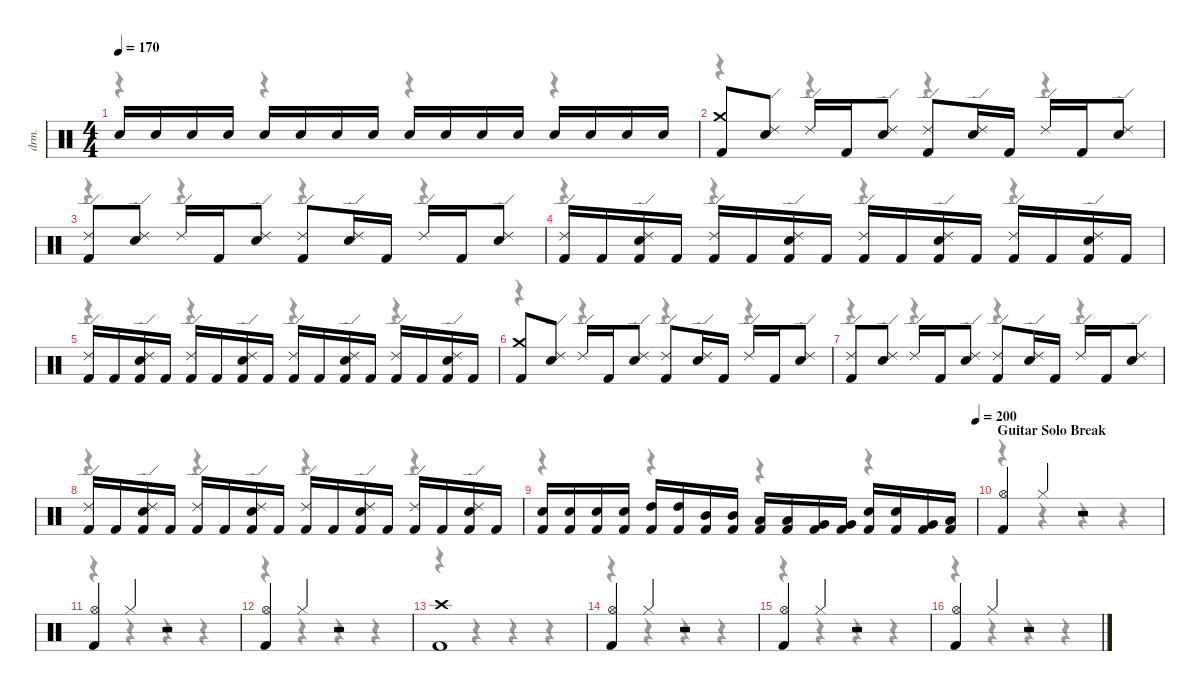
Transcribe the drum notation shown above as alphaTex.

\defaultSystemsLayout 4
\hideDynamics
\bracketExtendMode nobrackets
\otherSystemsTrackNameOrientation horizontal
\track ("David Mackintosh (Drums)" "drm.") {instrument percussion}
\staff {score}
\articulation defaults
\voice
\ts (4 4)
\tempo 170
\clef neutral
\ks c "Snare (hit) 2".16{dy f} "Snare (hit) 2".16 "Snare (hit) 2".16 "Snare (hit) 2".16 "Snare (hit) 2".16 "Snare (hit) 2".16 "Snare (hit) 2".16 "Snare (hit) 2".16 "Snare (hit) 2".16 "Snare (hit) 2".16 "Snare (hit) 2".16 "Snare (hit) 2".16 "Snare (hit) 2".16 "Snare (hit) 2".16 "Snare (hit) 2".16 "Snare (hit) 2".16
|
("Kick (hit) 2" "Crash medium (hit)").8 ("Snare (hit) 2" "Ride (edge) 2").8 "Ride (edge) 2".16 "Kick (hit) 2".16 ("Snare (hit) 2" "Ride (edge) 2").8 ("Kick (hit) 2" "Ride (edge) 2").8 ("Snare (hit) 2" "Ride (edge) 2").16 "Kick (hit) 2".16 "Ride (edge) 2".16 "Kick (hit) 2".16 ("Snare (hit) 2" "Ride (edge) 2").8 |
("Kick (hit) 2" "Ride (edge) 2").8 ("Snare (hit) 2" "Ride (edge) 2").8 "Ride (edge) 2".16 "Kick (hit) 2".16 ("Snare (hit) 2" "Ride (edge) 2").8 ("Kick (hit) 2" "Ride (edge) 2").8 ("Snare (hit) 2" "Ride (edge) 2").16 "Kick (hit) 2".16 "Ride (edge) 2".16 "Kick (hit) 2".16 ("Snare (hit) 2" "Ride (edge) 2").8 |
("Kick (hit) 2" "Ride (edge) 2").16 "Kick (hit) 2".16 ("Kick (hit) 2" "Snare (hit) 2" "Ride (edge) 2").16 "Kick (hit) 2".16 ("Kick (hit) 2" "Ride (edge) 2").16 "Kick (hit) 2".16 ("Kick (hit) 2" "Snare (hit) 2" "Ride (edge) 2").16 "Kick (hit) 2".16 ("Kick (hit) 2" "Ride (edge) 2").16 "Kick (hit) 2".16 ("Kick (hit) 2" "Snare (hit) 2" "Ride (edge) 2").16 "Kick (hit) 2".16 ("Kick (hit) 2" "Ride (edge) 2").16 "Kick (hit) 2".16 ("Kick (hit) 2" "Snare (hit) 2" "Ride (edge) 2").16 "Kick (hit) 2".16 |
("Kick (hit) 2" "Ride (edge) 2").16 "Kick (hit) 2".16 ("Kick (hit) 2" "Snare (hit) 2" "Ride (edge) 2").16 "Kick (hit) 2".16 ("Kick (hit) 2" "Ride (edge) 2").16 "Kick (hit) 2".16 ("Kick (hit) 2" "Snare (hit) 2" "Ride (edge) 2").16 "Kick (hit) 2".16 ("Kick (hit) 2" "Ride (edge) 2").16 "Kick (hit) 2".16 ("Kick (hit) 2" "Snare (hit) 2" "Ride (edge) 2").16 "Kick (hit) 2".16 ("Kick (hit) 2" "Ride (edge) 2").16 "Kick (hit) 2".16 ("Kick (hit) 2" "Snare (hit) 2" "Ride (edge) 2").16 "Kick (hit) 2".16 |
("Kick (hit) 2" "Crash medium (hit)").8 ("Snare (hit) 2" "Ride (edge) 2").8 "Ride (edge) 2".16 "Kick (hit) 2".16 ("Snare (hit) 2" "Ride (edge) 2").8 ("Kick (hit) 2" "Ride (edge) 2").8 ("Snare (hit) 2" "Ride (edge) 2").16 "Kick (hit) 2".16 "Ride (edge) 2".16 "Kick (hit) 2".16 ("Snare (hit) 2" "Ride (edge) 2").8 |
("Kick (hit) 2" "Ride (edge) 2").8 ("Snare (hit) 2" "Ride (edge) 2").8 "Ride (edge) 2".16 "Kick (hit) 2".16 ("Snare (hit) 2" "Ride (edge) 2").8 ("Kick (hit) 2" "Ride (edge) 2").8 ("Snare (hit) 2" "Ride (edge) 2").16 "Kick (hit) 2".16 "Ride (edge) 2".16 "Kick (hit) 2".16 ("Snare (hit) 2" "Ride (edge) 2").8 |
("Kick (hit) 2" "Ride (edge) 2").16 "Kick (hit) 2".16 ("Kick (hit) 2" "Snare (hit) 2" "Ride (edge) 2").16 "Kick (hit) 2".16 ("Kick (hit) 2" "Ride (edge) 2").16 "Kick (hit) 2".16 ("Kick (hit) 2" "Snare (hit) 2" "Ride (edge) 2").16 "Kick (hit) 2".16 ("Kick (hit) 2" "Ride (edge) 2").16 "Kick (hit) 2".16 ("Kick (hit) 2" "Snare (hit) 2" "Ride (edge) 2").16 "Kick (hit) 2".16 ("Kick (hit) 2" "Ride (edge) 2").16 "Kick (hit) 2".16 ("Kick (hit) 2" "Snare (hit) 2" "Ride (edge) 2").16 "Kick (hit) 2".16 |
\tempo (200 1)
("Kick (hit) 2" "Snare (hit) 2").16 ("Kick (hit) 2" "Snare (hit) 2").16 ("Kick (hit) 2" "Snare (hit) 2").16 ("Kick (hit) 2" "Snare (hit) 2").16 ("Kick (hit) 2" "High Tom (hit)").16 ("Kick (hit) 2" "High Tom (hit)").16 ("Kick (hit) 2" "Mid Tom (hit)").16 ("Kick (hit) 2" "Mid Tom (hit)").16 ("Kick (hit) 2" "Low Tom (hit)").16 ("Kick (hit) 2" "Low Tom (hit)").16 ("Kick (hit) 2" "Very Low Tom (hit)").16 ("Kick (hit) 2" "Very Low Tom (hit)").16 ("Kick (hit) 2" "Snare (hit) 2").16 ("Kick (hit) 2" "Snare (hit) 2").16 ("Kick (hit) 2" "Very Low Tom (hit)").16 ("Kick (hit) 2" "Low Floor Tom (hit)").16 |
\section ("" "Guitar Solo Break")
("Kick (hit) 2" "Hi-Hat (open)").4 "Hi-Hat (closed)".4{dy ppp} r.2 |
("Kick (hit) 2" "Hi-Hat (open)").4{dy f} "Hi-Hat (closed)".4{dy ppp} r.2 |
("Kick (hit) 2" "Hi-Hat (open)").4{dy f} "Hi-Hat (closed)".4{dy ppp} r.2 |
("Kick (hit) 2" "Crash high (hit)").1{dy f} |
("Kick (hit) 2" "Hi-Hat (open)").4 "Hi-Hat (closed)".4{dy ppp} r.2 |
("Kick (hit) 2" "Hi-Hat (open)").4{dy f} "Hi-Hat (closed)".4{dy ppp} r.2 |
("Kick (hit) 2" "Hi-Hat (open)").4{dy f} "Hi-Hat (closed)".4{dy ppp} r.2
\voice
\clef neutral
\ottava regular
\simile none
\ks c
r.4{dy mf} r.4 r.4 r.4 |
r.4 r.4 r.4 r.4 |
r.4 r.4 r.4 r.4 |
r.4 r.4 r.4 r.4 |
r.4 r.4 r.4 r.4 |
r.4 r.4 r.4 r.4 |
r.4 r.4 r.4 r.4 |
r.4 r.4 r.4 r.4 |
r.4 r.4 r.4 r.4 |
r.4 r.4 r.4 r.4 |
r.4 r.4 r.4 r.4 |
r.4 r.4 r.4 r.4 |
r.4 r.4 r.4 r.4 |
r.4 r.4 r.4 r.4 |
r.4 r.4 r.4 r.4 |
r.4 r.4 r.4 r.4
